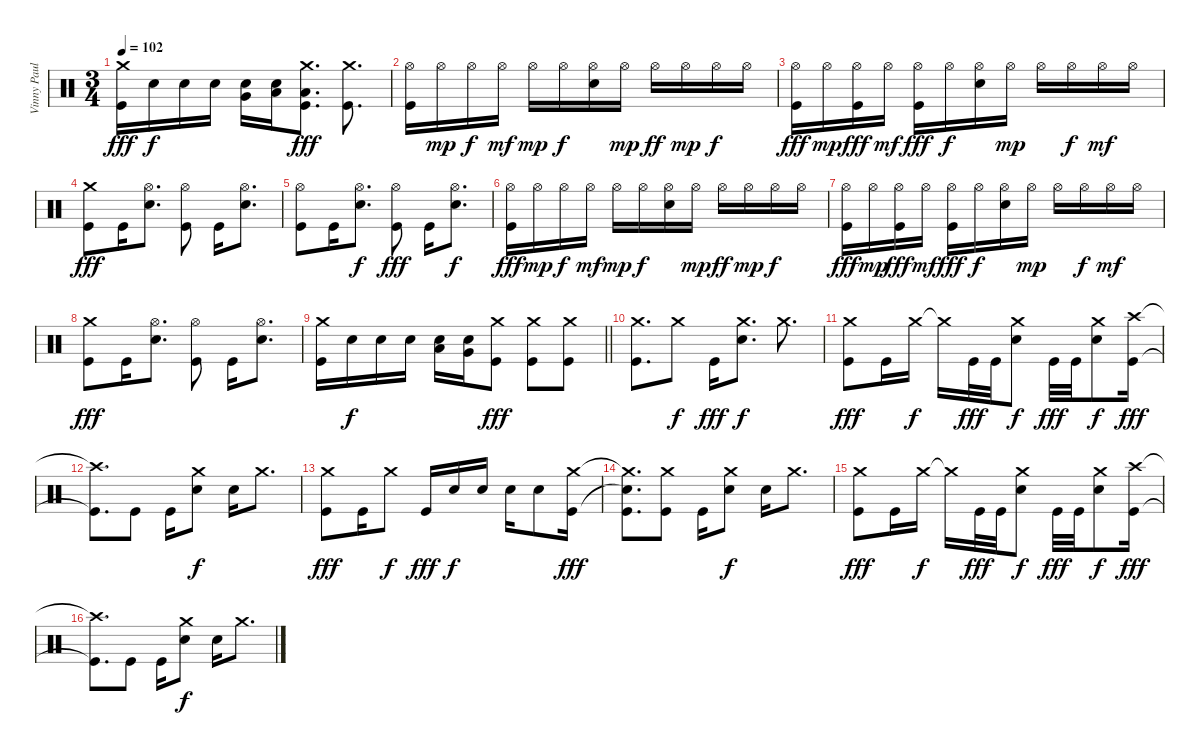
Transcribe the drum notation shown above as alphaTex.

\track ("Vinny Paul" "Vinny Paul") {instrument percussion}
\staff {score}
\articulation defaults
\ts (3 4)
\tempo 102
\clef neutral
\ks c
("Crash medium (hit)" "Kick (hit)").16{dy fff} "Electric Snare (hit)".16{dy f} "Electric Snare (hit)".16 "Electric Snare (hit)".16 ("Electric Snare (hit)" "Very Low Tom (hit)").16 ("Electric Snare (hit)" "Low Floor Tom (hit)").16 ("Crash medium (hit)" "Low Floor Tom (hit)" "Kick (hit)").8{d dy fff} ("Crash medium (hit)" "Kick (hit)").8{d} |
("Hi-Hat (open)" "Kick (hit)").16 "Hi-Hat (open)".16{dy mp} "Hi-Hat (open)".16{dy f} "Hi-Hat (open)".16{dy mf} "Hi-Hat (open)".16{dy mp} "Hi-Hat (open)".16{dy f} ("Hi-Hat (open)" "Electric Snare (hit)").16 "Hi-Hat (open)".16{dy mp} "Hi-Hat (open)".16{dy ff} "Hi-Hat (open)".16{dy mp} "Hi-Hat (open)".16{dy f} "Hi-Hat (open)".16 |
("Hi-Hat (open)" "Kick (hit)").16{dy fff} "Hi-Hat (open)".16{dy mp} ("Hi-Hat (open)" "Kick (hit)").16{dy fff} "Hi-Hat (open)".16{dy mf} ("Hi-Hat (open)" "Kick (hit)").16{dy fff} "Hi-Hat (open)".16{dy f} ("Hi-Hat (open)" "Electric Snare (hit)").16 "Hi-Hat (open)".16{dy mp} "Hi-Hat (open)".16 "Hi-Hat (open)".16{dy f} "Hi-Hat (open)".16{dy mf} "Hi-Hat (open)".16 |
("Crash medium (hit)" "Kick (hit)").8{dy fff} "Kick (hit)".16 ("Hi-Hat (open)" "Electric Snare (hit)").8{d} ("Hi-Hat (open)" "Kick (hit)").8 "Kick (hit)".16 ("Hi-Hat (open)" "Electric Snare (hit)").8{d} |
("Hi-Hat (open)" "Kick (hit)").8 "Kick (hit)".16 ("Hi-Hat (open)" "Electric Snare (hit)").8{d dy f} ("Hi-Hat (open)" "Kick (hit)").8{dy fff} "Kick (hit)".16 ("Hi-Hat (open)" "Electric Snare (hit)").8{d dy f} |
("Hi-Hat (open)" "Kick (hit)").16{dy fff} "Hi-Hat (open)".16{dy mp} "Hi-Hat (open)".16{dy f} "Hi-Hat (open)".16{dy mf} "Hi-Hat (open)".16{dy mp} "Hi-Hat (open)".16{dy f} ("Hi-Hat (open)" "Electric Snare (hit)").16 "Hi-Hat (open)".16{dy mp} "Hi-Hat (open)".16{dy ff} "Hi-Hat (open)".16{dy mp} "Hi-Hat (open)".16{dy f} "Hi-Hat (open)".16 |
("Hi-Hat (open)" "Kick (hit)").16{dy fff} "Hi-Hat (open)".16{dy mp} ("Hi-Hat (open)" "Kick (hit)").16{dy fff} "Hi-Hat (open)".16{dy mf} ("Hi-Hat (open)" "Kick (hit)").16{dy fff} "Hi-Hat (open)".16{dy f} ("Hi-Hat (open)" "Electric Snare (hit)").16 "Hi-Hat (open)".16{dy mp} "Hi-Hat (open)".16 "Hi-Hat (open)".16{dy f} "Hi-Hat (open)".16{dy mf} "Hi-Hat (open)".16 |
("Crash medium (hit)" "Kick (hit)").8{dy fff} "Kick (hit)".16 ("Hi-Hat (open)" "Electric Snare (hit)").8{d} ("Hi-Hat (open)" "Kick (hit)").8 "Kick (hit)".16 ("Hi-Hat (open)" "Electric Snare (hit)").8{d} |
\barLineRight lightlight
("Crash medium (hit)" "Kick (hit)").16 "Electric Snare (hit)".16{dy f} "Electric Snare (hit)".16 "Electric Snare (hit)".16 ("Electric Snare (hit)" "Low Tom (hit)").16 ("Electric Snare (hit)" "Very Low Tom (hit)").16 ("Crash medium (hit)" "Kick (hit)").8{dy fff} ("Crash medium (hit)" "Kick (hit)").8 ("Crash medium (hit)" "Kick (hit)").8 |
\section ("" "")
("Crash medium (hit)" "Kick (hit)").8{d} "Crash medium (hit)".8{dy f} "Kick (hit)".16{dy fff} ("Crash medium (hit)" "Electric Snare (hit)").8{d dy f} "Crash medium (hit)".8{d} |
("Crash medium (hit)" "Kick (hit)").8{dy fff} "Kick (hit)".16 "Crash medium (hit)".16{dy f} "Crash medium (hit)"{t}.16 "Kick (hit)".32{dy fff} "Kick (hit)".32 ("Crash medium (hit)" "Electric Snare (hit)").8{dy f} "Kick (hit)".32{dy fff} "Kick (hit)".32 ("Crash medium (hit)" "Electric Snare (hit)").8{dy f} ("Crash high (hit)" "Kick (hit)").16{dy fff} |
("Crash high (hit)"{t} "Kick (hit)"{t}).8{d} "Kick (hit)".8 "Kick (hit)".16 ("Crash medium (hit)" "Electric Snare (hit)").8{dy f} "Electric Snare (hit)".16 "Crash medium (hit)".8{d} |
("Crash medium (hit)" "Kick (hit)").8{dy fff} "Kick (hit)".16 "Crash medium (hit)".8{dy f} "Kick (hit)".16{dy fff} "Electric Snare (hit)".16{dy f} "Electric Snare (hit)".16 "Electric Snare (hit)".16 "Electric Snare (hit)".8 ("Crash medium (hit)" "Kick (hit)").16{dy fff} |
("Crash medium (hit)"{t} "Snare (hit)"{t} "Kick (hit)").8{d} ("Crash medium (hit)" "Kick (hit)").8 "Kick (hit)".16 ("Crash medium (hit)" "Electric Snare (hit)").8{dy f} "Electric Snare (hit)".16 "Crash medium (hit)".8{d} |
("Crash medium (hit)" "Kick (hit)").8{dy fff} "Kick (hit)".16 "Crash medium (hit)".16{dy f} "Crash medium (hit)"{t}.16 "Kick (hit)".32{dy fff} "Kick (hit)".32 ("Crash medium (hit)" "Electric Snare (hit)").8{dy f} "Kick (hit)".32{dy fff} "Kick (hit)".32 ("Crash medium (hit)" "Electric Snare (hit)").8{dy f} ("Crash high (hit)" "Kick (hit)").16{dy fff} |
("Crash high (hit)"{t} "Kick (hit)"{t}).8{d} "Kick (hit)".8 "Kick (hit)".16 ("Crash medium (hit)" "Electric Snare (hit)").8{dy f} "Electric Snare (hit)".16 "Crash medium (hit)".8{d}
